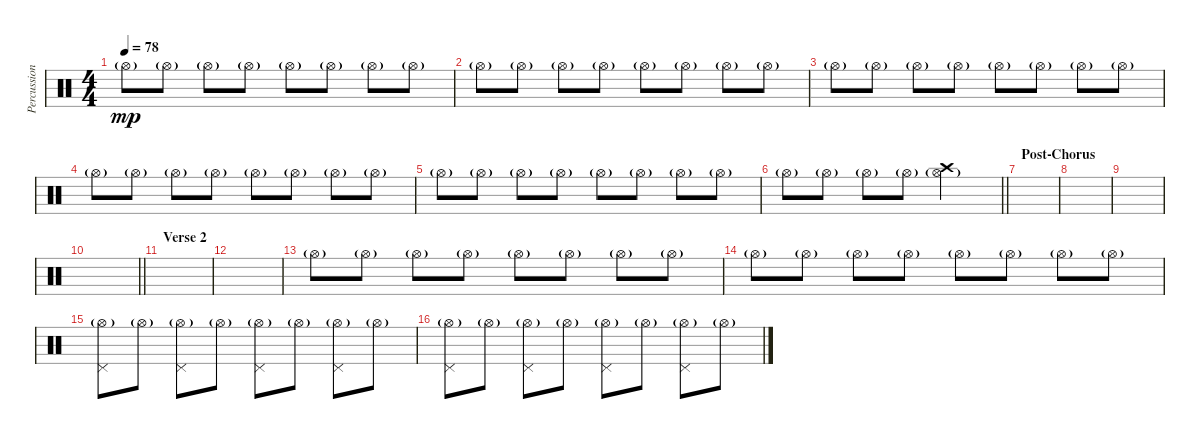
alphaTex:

\track ("Percussion" "Percussion") {instrument percussion}
\staff {score}
\articulation defaults
\ts (4 4)
\tempo 78
\clef neutral
\ks c "Hi-Hat (open)"{g}.8{dy mp} "Hi-Hat (open)"{g}.8 "Hi-Hat (open)"{g}.8 "Hi-Hat (open)"{g}.8 "Hi-Hat (open)"{g}.8 "Hi-Hat (open)"{g}.8 "Hi-Hat (open)"{g}.8 "Hi-Hat (open)"{g}.8
|
"Hi-Hat (open)"{g}.8 "Hi-Hat (open)"{g}.8 "Hi-Hat (open)"{g}.8 "Hi-Hat (open)"{g}.8 "Hi-Hat (open)"{g}.8 "Hi-Hat (open)"{g}.8 "Hi-Hat (open)"{g}.8 "Hi-Hat (open)"{g}.8 |
"Hi-Hat (open)"{g}.8 "Hi-Hat (open)"{g}.8 "Hi-Hat (open)"{g}.8 "Hi-Hat (open)"{g}.8 "Hi-Hat (open)"{g}.8 "Hi-Hat (open)"{g}.8 "Hi-Hat (open)"{g}.8 "Hi-Hat (open)"{g}.8 |
"Hi-Hat (open)"{g}.8 "Hi-Hat (open)"{g}.8 "Hi-Hat (open)"{g}.8 "Hi-Hat (open)"{g}.8 "Hi-Hat (open)"{g}.8 "Hi-Hat (open)"{g}.8 "Hi-Hat (open)"{g}.8 "Hi-Hat (open)"{g}.8 |
"Hi-Hat (open)"{g}.8 "Hi-Hat (open)"{g}.8 "Hi-Hat (open)"{g}.8 "Hi-Hat (open)"{g}.8 "Hi-Hat (open)"{g}.8 "Hi-Hat (open)"{g}.8 "Hi-Hat (open)"{g}.8 "Hi-Hat (open)"{g}.8 |
\barLineRight lightlight "Hi-Hat (open)"{g}.8 "Hi-Hat (open)"{g}.8 "Hi-Hat (open)"{g}.8 "Hi-Hat (open)"{g}.8
("Hi-Hat (open)"{g} "Crash high (hit)").2 |
\section ("" "Post-Chorus")
|
|
|
\barLineRight lightlight
|
\section ("" "Verse 2")
|
|
"Hi-Hat (open)"{g}.8 "Hi-Hat (open)"{g}.8 "Hi-Hat (open)"{g}.8 "Hi-Hat (open)"{g}.8 "Hi-Hat (open)"{g}.8 "Hi-Hat (open)"{g}.8 "Hi-Hat (open)"{g}.8 "Hi-Hat (open)"{g}.8 |
"Hi-Hat (open)"{g}.8 "Hi-Hat (open)"{g}.8 "Hi-Hat (open)"{g}.8 "Hi-Hat (open)"{g}.8 "Hi-Hat (open)"{g}.8 "Hi-Hat (open)"{g}.8 "Hi-Hat (open)"{g}.8 "Hi-Hat (open)"{g}.8 |
("Hi-Hat (open)"{g} "Pedal Hi-Hat (hit)").8 "Hi-Hat (open)"{g}.8 ("Hi-Hat (open)"{g} "Pedal Hi-Hat (hit)").8 "Hi-Hat (open)"{g}.8 ("Hi-Hat (open)"{g} "Pedal Hi-Hat (hit)").8 "Hi-Hat (open)"{g}.8 ("Hi-Hat (open)"{g} "Pedal Hi-Hat (hit)").8 "Hi-Hat (open)"{g}.8 |
("Hi-Hat (open)"{g} "Pedal Hi-Hat (hit)").8 "Hi-Hat (open)"{g}.8 ("Hi-Hat (open)"{g} "Pedal Hi-Hat (hit)").8 "Hi-Hat (open)"{g}.8 ("Hi-Hat (open)"{g} "Pedal Hi-Hat (hit)").8 "Hi-Hat (open)"{g}.8 ("Hi-Hat (open)"{g} "Pedal Hi-Hat (hit)").8 "Hi-Hat (open)"{g}.8
